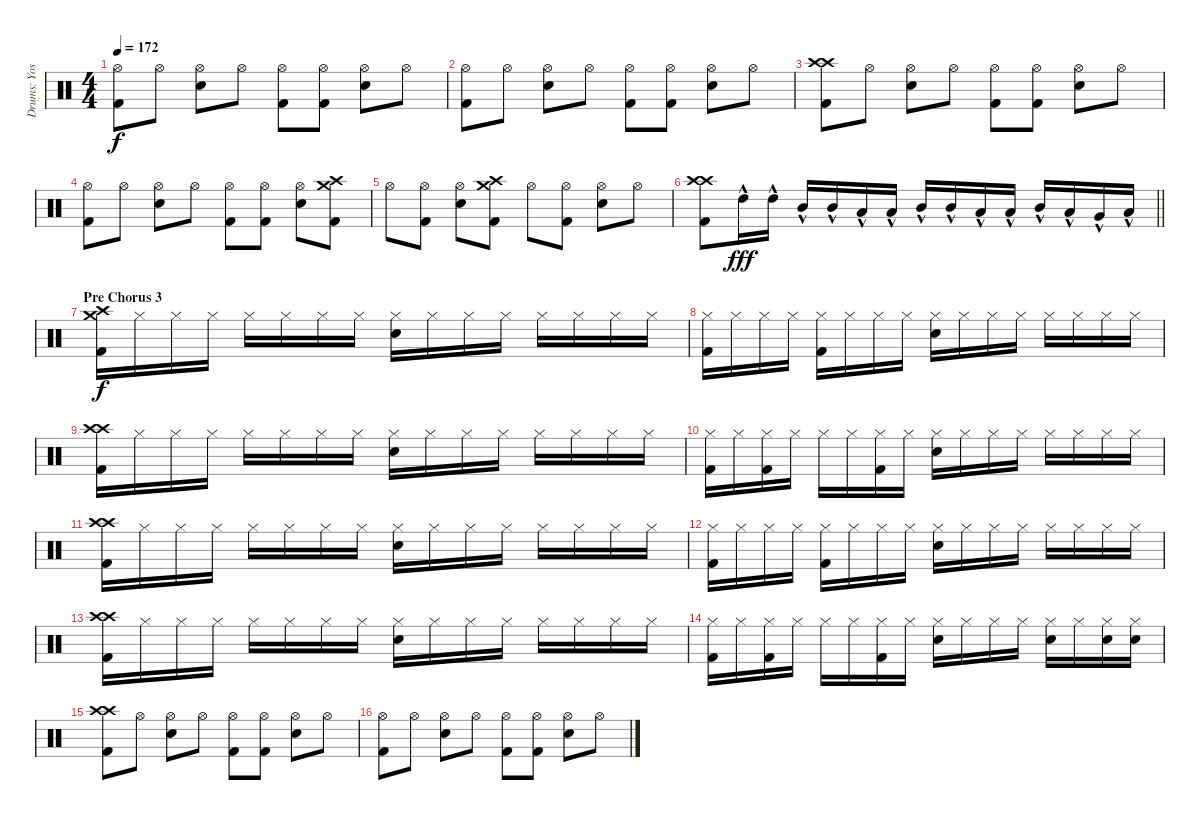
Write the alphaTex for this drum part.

\track ("Drums: Yoshiki" "Drums: Yos") {instrument percussion}
\staff {score}
\articulation defaults
\ts (4 4)
\tempo 172
\clef neutral
\ks c
("Hi-Hat (open)" "Kick (hit) 2").8{dy f} "Hi-Hat (open)".8 ("Hi-Hat (open)" "Snare (hit) 2").8 "Hi-Hat (open)".8 ("Hi-Hat (open)" "Kick (hit) 2").8 ("Hi-Hat (open)" "Kick (hit) 2").8 ("Hi-Hat (open)" "Snare (hit) 2").8 "Hi-Hat (open)".8 |
("Hi-Hat (open)" "Kick (hit) 2").8 "Hi-Hat (open)".8 ("Hi-Hat (open)" "Snare (hit) 2").8 "Hi-Hat (open)".8 ("Hi-Hat (open)" "Kick (hit) 2").8 ("Hi-Hat (open)" "Kick (hit) 2").8 ("Hi-Hat (open)" "Snare (hit) 2").8 "Hi-Hat (open)".8 |
("Crash high (hit)" "Crash high (hit)" "Kick (hit) 2").8 "Hi-Hat (open)".8 ("Hi-Hat (open)" "Snare (hit) 2").8 "Hi-Hat (open)".8 ("Hi-Hat (open)" "Kick (hit) 2").8 ("Hi-Hat (open)" "Kick (hit) 2").8 ("Hi-Hat (open)" "Snare (hit) 2").8 "Hi-Hat (open)".8 |
("Hi-Hat (open)" "Kick (hit) 2").8 "Hi-Hat (open)".8 ("Hi-Hat (open)" "Snare (hit) 2").8 "Hi-Hat (open)".8 ("Hi-Hat (open)" "Kick (hit) 2").8 ("Hi-Hat (open)" "Kick (hit) 2").8 ("Hi-Hat (open)" "Snare (hit) 2").8 ("Crash high (hit)" "Crash medium (hit)" "Kick (hit) 2").8 |
"Hi-Hat (open)".8 ("Hi-Hat (open)" "Kick (hit) 2").8 ("Hi-Hat (open)" "Snare (hit) 2").8 ("Crash high (hit)" "Crash medium (hit)" "Kick (hit) 2").8 "Hi-Hat (open)".8 ("Hi-Hat (open)" "Kick (hit) 2").8 ("Hi-Hat (open)" "Snare (hit) 2").8 "Hi-Hat (open)".8 |
\barLineRight lightlight
("Crash high (hit)" "Crash high (hit)" "Kick (hit) 2").8 "High Tom (hit)"{hac}.16{dy fff} "High Tom (hit)"{hac}.16 "Mid Tom (hit)"{hac}.16 "Mid Tom (hit)"{hac}.16 "Low Tom (hit)"{hac}.16 "Low Tom (hit)"{hac}.16 "Mid Tom (hit)"{hac}.16 "Mid Tom (hit)"{hac}.16 "Low Tom (hit)"{hac}.16 "Low Tom (hit)"{hac}.16 "Mid Tom (hit)"{hac}.16 "Low Tom (hit)"{hac}.16 "Very Low Tom (hit)"{hac}.16 "Low Floor Tom (hit)"{hac}.16 |
\section ("" "Pre Chorus 3")
("Crash high (hit)" "Crash medium (hit)" "Kick (hit) 2").16{dy f} "Hi-Hat (closed)".16 "Hi-Hat (closed)".16 "Hi-Hat (closed)".16 "Hi-Hat (closed)".16 "Hi-Hat (closed)".16 "Hi-Hat (closed)".16 "Hi-Hat (closed)".16 ("Hi-Hat (closed)" "Snare (hit) 2").16 "Hi-Hat (closed)".16 "Hi-Hat (closed)".16 "Hi-Hat (closed)".16 "Hi-Hat (closed)".16 "Hi-Hat (closed)".16 "Hi-Hat (closed)".16 "Hi-Hat (closed)".16 |
("Hi-Hat (closed)" "Kick (hit) 2").16 "Hi-Hat (closed)".16 "Hi-Hat (closed)".16 "Hi-Hat (closed)".16 ("Hi-Hat (closed)" "Kick (hit) 2").16 "Hi-Hat (closed)".16 "Hi-Hat (closed)".16 "Hi-Hat (closed)".16 ("Hi-Hat (closed)" "Snare (hit) 2").16 "Hi-Hat (closed)".16 "Hi-Hat (closed)".16 "Hi-Hat (closed)".16 "Hi-Hat (closed)".16 "Hi-Hat (closed)".16 "Hi-Hat (closed)".16 "Hi-Hat (closed)".16 |
("Crash high (hit)" "Crash high (hit)" "Kick (hit) 2").16 "Hi-Hat (closed)".16 "Hi-Hat (closed)".16 "Hi-Hat (closed)".16 "Hi-Hat (closed)".16 "Hi-Hat (closed)".16 "Hi-Hat (closed)".16 "Hi-Hat (closed)".16 ("Hi-Hat (closed)" "Snare (hit) 2").16 "Hi-Hat (closed)".16 "Hi-Hat (closed)".16 "Hi-Hat (closed)".16 "Hi-Hat (closed)".16 "Hi-Hat (closed)".16 "Hi-Hat (closed)".16 "Hi-Hat (closed)".16 |
("Hi-Hat (closed)" "Kick (hit) 2").16 "Hi-Hat (closed)".16 ("Hi-Hat (closed)" "Kick (hit) 2").16 "Hi-Hat (closed)".16 "Hi-Hat (closed)".16 "Hi-Hat (closed)".16 ("Hi-Hat (closed)" "Kick (hit) 2").16 "Hi-Hat (closed)".16 ("Hi-Hat (closed)" "Snare (hit) 2").16 "Hi-Hat (closed)".16 "Hi-Hat (closed)".16 "Hi-Hat (closed)".16 "Hi-Hat (closed)".16 "Hi-Hat (closed)".16 "Hi-Hat (closed)".16 "Hi-Hat (closed)".16 |
("Crash high (hit)" "Crash high (hit)" "Kick (hit) 2").16 "Hi-Hat (closed)".16 "Hi-Hat (closed)".16 "Hi-Hat (closed)".16 "Hi-Hat (closed)".16 "Hi-Hat (closed)".16 "Hi-Hat (closed)".16 "Hi-Hat (closed)".16 ("Hi-Hat (closed)" "Snare (hit) 2").16 "Hi-Hat (closed)".16 "Hi-Hat (closed)".16 "Hi-Hat (closed)".16 "Hi-Hat (closed)".16 "Hi-Hat (closed)".16 "Hi-Hat (closed)".16 "Hi-Hat (closed)".16 |
("Hi-Hat (closed)" "Kick (hit) 2").16 "Hi-Hat (closed)".16 "Hi-Hat (closed)".16 "Hi-Hat (closed)".16 ("Hi-Hat (closed)" "Kick (hit) 2").16 "Hi-Hat (closed)".16 "Hi-Hat (closed)".16 "Hi-Hat (closed)".16 ("Hi-Hat (closed)" "Snare (hit) 2").16 "Hi-Hat (closed)".16 "Hi-Hat (closed)".16 "Hi-Hat (closed)".16 "Hi-Hat (closed)".16 "Hi-Hat (closed)".16 "Hi-Hat (closed)".16 "Hi-Hat (closed)".16 |
("Crash high (hit)" "Crash high (hit)" "Kick (hit) 2").16 "Hi-Hat (closed)".16 "Hi-Hat (closed)".16 "Hi-Hat (closed)".16 "Hi-Hat (closed)".16 "Hi-Hat (closed)".16 "Hi-Hat (closed)".16 "Hi-Hat (closed)".16 ("Hi-Hat (closed)" "Snare (hit) 2").16 "Hi-Hat (closed)".16 "Hi-Hat (closed)".16 "Hi-Hat (closed)".16 "Hi-Hat (closed)".16 "Hi-Hat (closed)".16 "Hi-Hat (closed)".16 "Hi-Hat (closed)".16 |
("Hi-Hat (closed)" "Kick (hit) 2").16 "Hi-Hat (closed)".16 ("Hi-Hat (closed)" "Kick (hit) 2").16 "Hi-Hat (closed)".16 "Hi-Hat (closed)".16 "Hi-Hat (closed)".16 ("Hi-Hat (closed)" "Kick (hit) 2").16 "Hi-Hat (closed)".16 ("Hi-Hat (closed)" "Snare (hit) 2").16 "Hi-Hat (closed)".16 "Hi-Hat (closed)".16 "Hi-Hat (closed)".16 ("Hi-Hat (closed)" "Snare (hit) 2").16 "Hi-Hat (closed)".16 ("Hi-Hat (closed)" "Snare (hit) 2").16 ("Hi-Hat (closed)" "Snare (hit) 2").16 |
("Crash high (hit)" "Crash high (hit)" "Kick (hit) 2").8 "Hi-Hat (open)".8 ("Hi-Hat (open)" "Snare (hit) 2").8 "Hi-Hat (open)".8 ("Hi-Hat (open)" "Kick (hit) 2").8 ("Hi-Hat (open)" "Kick (hit) 2").8 ("Hi-Hat (open)" "Snare (hit) 2").8 "Hi-Hat (open)".8 |
("Hi-Hat (open)" "Kick (hit) 2").8 "Hi-Hat (open)".8 ("Hi-Hat (open)" "Snare (hit) 2").8 "Hi-Hat (open)".8 ("Hi-Hat (open)" "Kick (hit) 2").8 ("Hi-Hat (open)" "Kick (hit) 2").8 ("Hi-Hat (open)" "Snare (hit) 2").8 "Hi-Hat (open)".8
